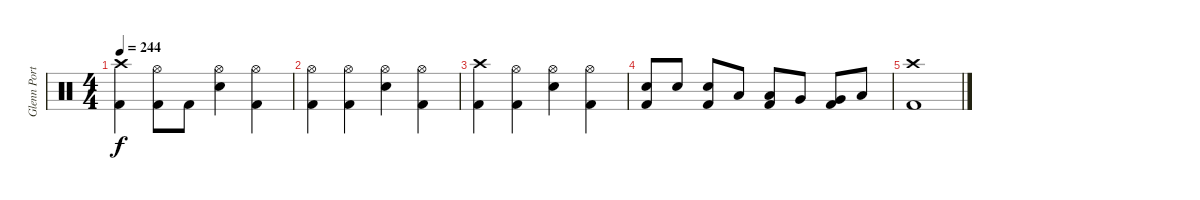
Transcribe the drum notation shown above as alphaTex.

\track ("Glenn Porter - Drums" "Glenn Port") {instrument percussion}
\staff {score}
\articulation defaults
\ts (4 4)
\tempo 244
\clef neutral
\ks c
("Crash high (hit)" "Kick (hit) 2").4{dy f} ("Kick (hit) 2" "Hi-Hat (open)").8 "Kick (hit) 2".8 ("Snare (hit) 2" "Hi-Hat (open)").4 ("Kick (hit) 2" "Hi-Hat (open)").4 |
("Kick (hit) 2" "Hi-Hat (open)").4 ("Kick (hit) 2" "Hi-Hat (open)").4 ("Snare (hit) 2" "Hi-Hat (open)").4 ("Kick (hit) 2" "Hi-Hat (open)").4 |
("Crash high (hit)" "Kick (hit) 2").4 ("Kick (hit) 2" "Hi-Hat (open)").4 ("Snare (hit) 2" "Hi-Hat (open)").4 ("Kick (hit) 2" "Hi-Hat (open)").4 |
("Snare (hit) 2" "Kick (hit) 2").8 "Snare (hit) 2".8 ("Snare (hit) 2" "Kick (hit) 2").8 "Low Tom (hit)".8 ("Low Tom (hit)" "Kick (hit) 2").8 "Very Low Tom (hit)".8 ("Very Low Tom (hit)" "Kick (hit) 2").8 "Low Floor Tom (hit)".8 |
("Crash high (hit)" "Kick (hit) 2").1
